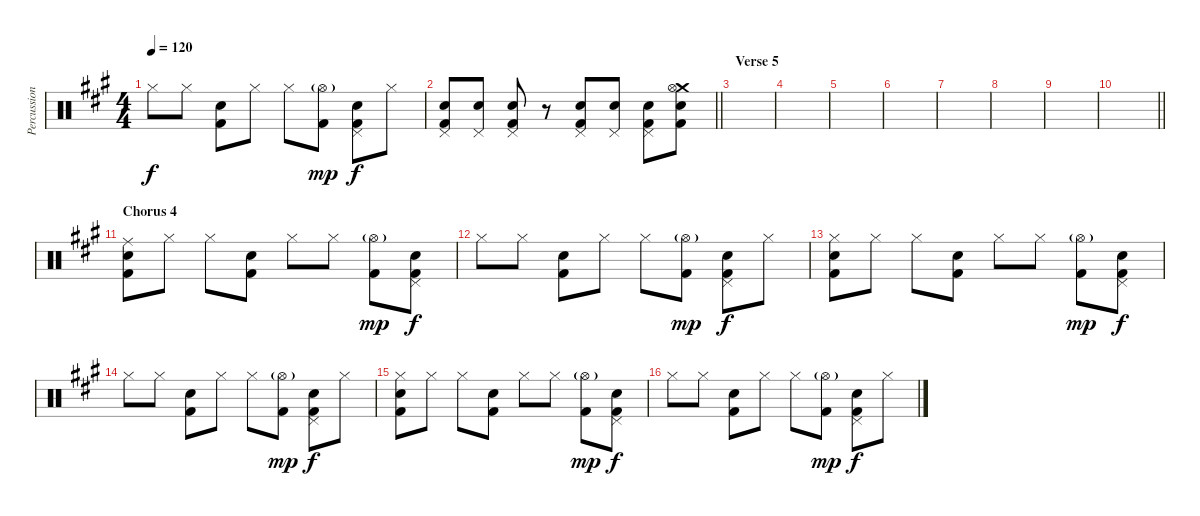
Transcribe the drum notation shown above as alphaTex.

\track ("Percussion" "Percussion") {instrument percussion}
\staff {score}
\articulation defaults
\ts (4 4)
\tempo 120
\clef neutral
\ks a "Hi-Hat (closed)".8{dy f} "Hi-Hat (closed)".8
("Snare (hit) 2" "Kick (hit) 2").8 "Hi-Hat (closed)".8 "Hi-Hat (closed)".8 ("Hi-Hat (open)"{g} "Kick (hit) 2").8{dy mp} ("Pedal Hi-Hat (hit)" "Snare (hit) 2" "Kick (hit) 2").8{dy f} "Hi-Hat (closed)".8 |
\barLineRight lightlight
("Pedal Hi-Hat (hit)" "Snare (hit) 2" "Kick (hit) 2").8 ("Pedal Hi-Hat (hit)" "Snare (hit) 2").8 ("Pedal Hi-Hat (hit)" "Snare (hit) 2" "Kick (hit) 2").8 r.8 ("Pedal Hi-Hat (hit)" "Snare (hit) 2" "Kick (hit) 2").8 ("Pedal Hi-Hat (hit)" "Snare (hit) 2").8 ("Pedal Hi-Hat (hit)" "Snare (hit) 2" "Kick (hit) 2").8 ("Crash medium (hit)" "Hi-Hat (open)" "Snare (hit) 2" "Kick (hit) 2").8 |
\section ("" "Verse 5")
|
|
|
|
|
|
|
\barLineRight lightlight
|
\section ("" "Chorus 4")
("Ride (middle)" "Snare (hit) 2" "Kick (hit) 2").8 "Hi-Hat (closed)".8 "Hi-Hat (closed)".8 ("Snare (hit) 2" "Kick (hit) 2").8 "Hi-Hat (closed)".8 "Hi-Hat (closed)".8 ("Hi-Hat (open)"{g} "Kick (hit) 2").8{dy mp} ("Pedal Hi-Hat (hit)" "Snare (hit) 2" "Kick (hit) 2").8{dy f} |
"Hi-Hat (closed)".8 "Hi-Hat (closed)".8 ("Snare (hit) 2" "Kick (hit) 2").8 "Hi-Hat (closed)".8 "Hi-Hat (closed)".8 ("Hi-Hat (open)"{g} "Kick (hit) 2").8{dy mp} ("Pedal Hi-Hat (hit)" "Snare (hit) 2" "Kick (hit) 2").8{dy f} "Hi-Hat (closed)".8 |
("Hi-Hat (closed)" "Snare (hit) 2" "Kick (hit) 2").8 "Hi-Hat (closed)".8 "Hi-Hat (closed)".8 ("Snare (hit) 2" "Kick (hit) 2").8 "Hi-Hat (closed)".8 "Hi-Hat (closed)".8 ("Hi-Hat (open)"{g} "Kick (hit) 2").8{dy mp} ("Pedal Hi-Hat (hit)" "Snare (hit) 2" "Kick (hit) 2").8{dy f} |
"Hi-Hat (closed)".8 "Hi-Hat (closed)".8 ("Snare (hit) 2" "Kick (hit) 2").8 "Hi-Hat (closed)".8 "Hi-Hat (closed)".8 ("Hi-Hat (open)"{g} "Kick (hit) 2").8{dy mp} ("Pedal Hi-Hat (hit)" "Snare (hit) 2" "Kick (hit) 2").8{dy f} "Hi-Hat (closed)".8 |
("Hi-Hat (closed)" "Snare (hit) 2" "Kick (hit) 2").8 "Hi-Hat (closed)".8 "Hi-Hat (closed)".8 ("Snare (hit) 2" "Kick (hit) 2").8 "Hi-Hat (closed)".8 "Hi-Hat (closed)".8 ("Hi-Hat (open)"{g} "Kick (hit) 2").8{dy mp} ("Pedal Hi-Hat (hit)" "Snare (hit) 2" "Kick (hit) 2").8{dy f} |
"Hi-Hat (closed)".8 "Hi-Hat (closed)".8 ("Snare (hit) 2" "Kick (hit) 2").8 "Hi-Hat (closed)".8 "Hi-Hat (closed)".8 ("Hi-Hat (open)"{g} "Kick (hit) 2").8{dy mp} ("Pedal Hi-Hat (hit)" "Snare (hit) 2" "Kick (hit) 2").8{dy f} "Hi-Hat (closed)".8
